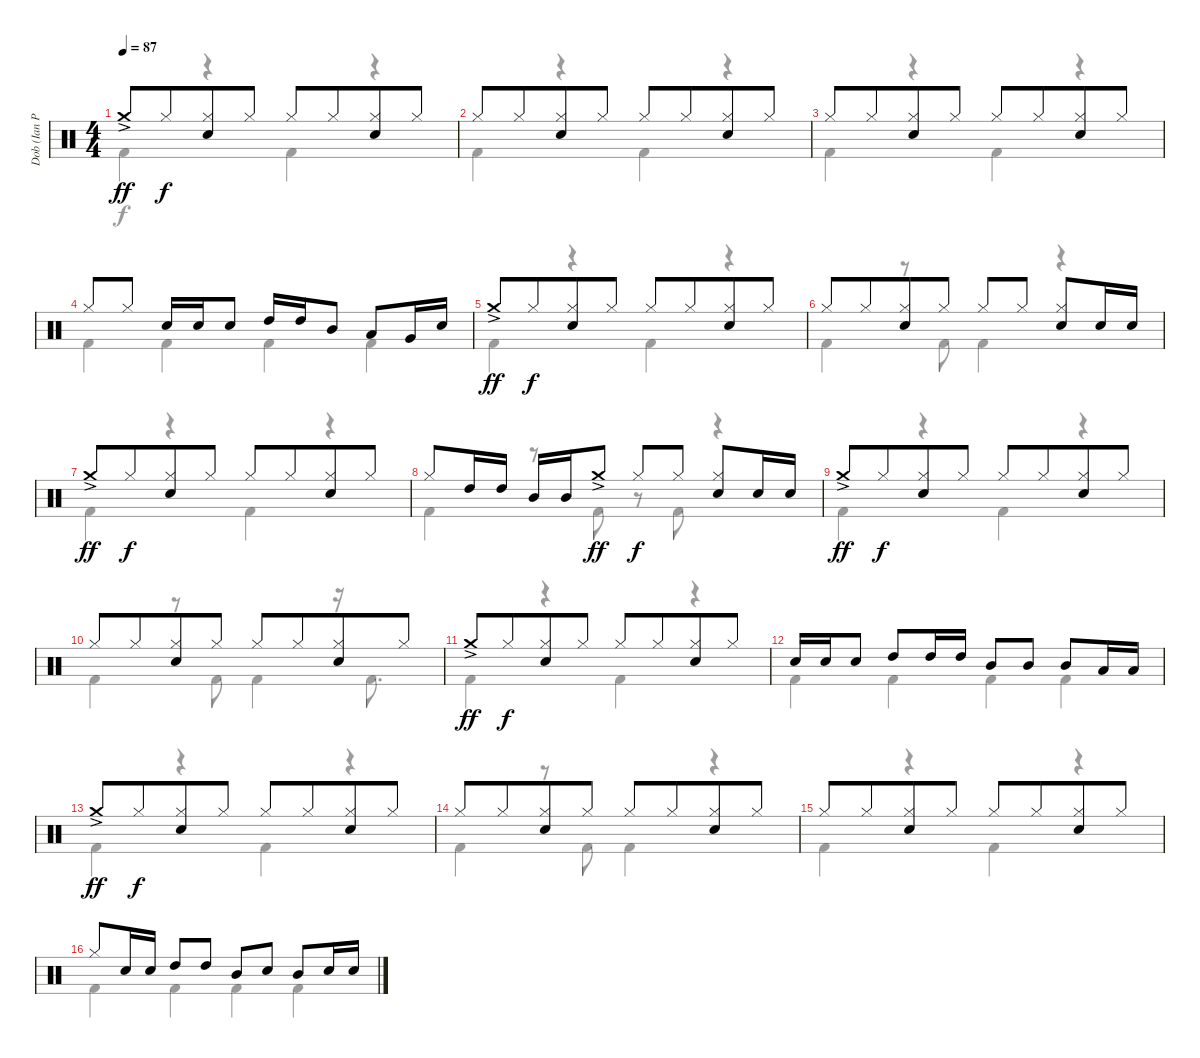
\track ("Dob (Ian Paice)" "Dob (Ian P") {instrument percussion}
\staff {score}
\articulation defaults
\voice
\ts (4 4)
\tempo 87
\clef neutral
\ks c "Crash medium (hit)"{ac}.8{dy ff} "Hi-Hat (closed)".8{dy f beam merge}
("Hi-Hat (closed)" "Electric Snare (hit)").8 "Hi-Hat (closed)".8 "Hi-Hat (closed)".8 "Hi-Hat (closed)".8{beam merge} ("Hi-Hat (closed)" "Electric Snare (hit)").8 "Hi-Hat (closed)".8 |
"Hi-Hat (closed)".8 "Hi-Hat (closed)".8{beam merge} ("Hi-Hat (closed)" "Electric Snare (hit)").8 "Hi-Hat (closed)".8 "Hi-Hat (closed)".8 "Hi-Hat (closed)".8{beam merge} ("Hi-Hat (closed)" "Electric Snare (hit)").8 "Hi-Hat (closed)".8 |
"Hi-Hat (closed)".8 "Hi-Hat (closed)".8{beam merge} ("Hi-Hat (closed)" "Electric Snare (hit)").8 "Hi-Hat (closed)".8 "Hi-Hat (closed)".8 "Hi-Hat (closed)".8{beam merge} ("Hi-Hat (closed)" "Electric Snare (hit)").8 "Hi-Hat (closed)".8 |
"Hi-Hat (closed)".8 "Hi-Hat (closed)".8 "Electric Snare (hit)".16 "Electric Snare (hit)".16 "Electric Snare (hit)".8 "High Tom (hit)".16 "High Tom (hit)".16 "Mid Tom (hit)".8 "Low Tom (hit)".8 "Very Low Tom (hit)".16 "Electric Snare (hit)".16 |
"Crash medium (hit)"{ac}.8{dy ff} "Hi-Hat (closed)".8{dy f beam merge} ("Hi-Hat (closed)" "Electric Snare (hit)").8 "Hi-Hat (closed)".8 "Hi-Hat (closed)".8 "Hi-Hat (closed)".8{beam merge} ("Hi-Hat (closed)" "Electric Snare (hit)").8 "Hi-Hat (closed)".8 |
"Hi-Hat (closed)".8 "Hi-Hat (closed)".8{beam merge} ("Hi-Hat (closed)" "Electric Snare (hit)").8 "Hi-Hat (closed)".8 "Hi-Hat (closed)".8 "Hi-Hat (closed)".8{beam split} ("Hi-Hat (closed)" "Electric Snare (hit)").8 "Electric Snare (hit)".16 "Electric Snare (hit)".16 |
"Crash medium (hit)"{ac}.8{dy ff} "Hi-Hat (closed)".8{dy f beam merge} ("Hi-Hat (closed)" "Electric Snare (hit)").8 "Hi-Hat (closed)".8 "Hi-Hat (closed)".8 "Hi-Hat (closed)".8{beam merge} ("Hi-Hat (closed)" "Electric Snare (hit)").8 "Hi-Hat (closed)".8 |
"Hi-Hat (closed)".8 "High Tom (hit)".16 "High Tom (hit)".16 "Mid Tom (hit)".16 "Mid Tom (hit)".16 "Crash medium (hit)"{ac}.8{dy ff} "Hi-Hat (closed)".8{dy f} "Hi-Hat (closed)".8{beam split} ("Hi-Hat (closed)" "Electric Snare (hit)").8 "Electric Snare (hit)".16 "Electric Snare (hit)".16 |
"Crash medium (hit)"{ac}.8{dy ff} "Hi-Hat (closed)".8{dy f beam merge} ("Hi-Hat (closed)" "Electric Snare (hit)").8 "Hi-Hat (closed)".8 "Hi-Hat (closed)".8 "Hi-Hat (closed)".8{beam merge} ("Hi-Hat (closed)" "Electric Snare (hit)").8 "Hi-Hat (closed)".8 |
"Hi-Hat (closed)".8 "Hi-Hat (closed)".8{beam merge} ("Hi-Hat (closed)" "Electric Snare (hit)").8 "Hi-Hat (closed)".8 "Hi-Hat (closed)".8 "Hi-Hat (closed)".8{beam merge} ("Hi-Hat (closed)" "Electric Snare (hit)").8 "Hi-Hat (closed)".8 |
"Crash medium (hit)"{ac}.8{dy ff} "Hi-Hat (closed)".8{dy f beam merge} ("Hi-Hat (closed)" "Electric Snare (hit)").8 "Hi-Hat (closed)".8 "Hi-Hat (closed)".8 "Hi-Hat (closed)".8{beam merge} ("Hi-Hat (closed)" "Electric Snare (hit)").8 "Hi-Hat (closed)".8 |
"Electric Snare (hit)".16 "Electric Snare (hit)".16 "Electric Snare (hit)".8 "High Tom (hit)".8 "High Tom (hit)".16 "High Tom (hit)".16 "Mid Tom (hit)".8 "Mid Tom (hit)".8 "Mid Tom (hit)".8 "Low Tom (hit)".16 "Low Tom (hit)".16 |
"Crash medium (hit)"{ac}.8{dy ff} "Hi-Hat (closed)".8{dy f beam merge} ("Hi-Hat (closed)" "Electric Snare (hit)").8 "Hi-Hat (closed)".8 "Hi-Hat (closed)".8 "Hi-Hat (closed)".8{beam merge} ("Hi-Hat (closed)" "Electric Snare (hit)").8 "Hi-Hat (closed)".8 |
"Hi-Hat (closed)".8 "Hi-Hat (closed)".8{beam merge} ("Hi-Hat (closed)" "Electric Snare (hit)").8 "Hi-Hat (closed)".8 "Hi-Hat (closed)".8 "Hi-Hat (closed)".8{beam merge} ("Hi-Hat (closed)" "Electric Snare (hit)").8 "Hi-Hat (closed)".8 |
"Hi-Hat (closed)".8 "Hi-Hat (closed)".8{beam merge} ("Hi-Hat (closed)" "Electric Snare (hit)").8 "Hi-Hat (closed)".8 "Hi-Hat (closed)".8 "Hi-Hat (closed)".8{beam merge} ("Hi-Hat (closed)" "Electric Snare (hit)").8 "Hi-Hat (closed)".8 |
"Hi-Hat (closed)".8 "Electric Snare (hit)".16 "Electric Snare (hit)".16 "High Tom (hit)".8 "High Tom (hit)".8 "Mid Tom (hit)".8 "Electric Snare (hit)".8 "Mid Tom (hit)".8 "Electric Snare (hit)".16 "Electric Snare (hit)".16
\voice
\clef neutral
\ottava regular
\simile none
\ks c "Kick (hit) 2".4{dy f}
r.4 "Kick (hit) 2".4 r.4 |
"Kick (hit) 2".4 r.4 "Kick (hit) 2".4 r.4 |
"Kick (hit) 2".4 r.4 "Kick (hit) 2".4 r.4 |
"Kick (hit) 2".4 "Kick (hit) 2".4 "Kick (hit) 2".4 "Kick (hit) 2".4 |
"Kick (hit) 2".4 r.4 "Kick (hit) 2".4 r.4 |
"Kick (hit) 2".4 r.8 "Kick (hit) 2".8 "Kick (hit) 2".4 r.4 |
"Kick (hit) 2".4 r.4 "Kick (hit) 2".4 r.4 |
"Kick (hit) 2".4 r.8 "Kick (hit) 2".8 r.8 "Kick (hit) 2".8 r.4 |
"Kick (hit) 2".4 r.4 "Kick (hit) 2".4 r.4 |
"Kick (hit) 2".4 r.8 "Kick (hit) 2".8 "Kick (hit) 2".4 r.16 "Kick (hit) 2".8{d} |
"Kick (hit) 2".4 r.4 "Kick (hit) 2".4 r.4 |
"Kick (hit) 2".4 "Kick (hit) 2".4 "Kick (hit) 2".4 "Kick (hit) 2".4 |
"Kick (hit) 2".4 r.4 "Kick (hit) 2".4 r.4 |
"Kick (hit) 2".4 r.8 "Kick (hit) 2".8 "Kick (hit) 2".4 r.4 |
"Kick (hit) 2".4 r.4 "Kick (hit) 2".4 r.4 |
"Kick (hit) 2".4 "Kick (hit) 2".4 "Kick (hit) 2".4 "Kick (hit) 2".4
